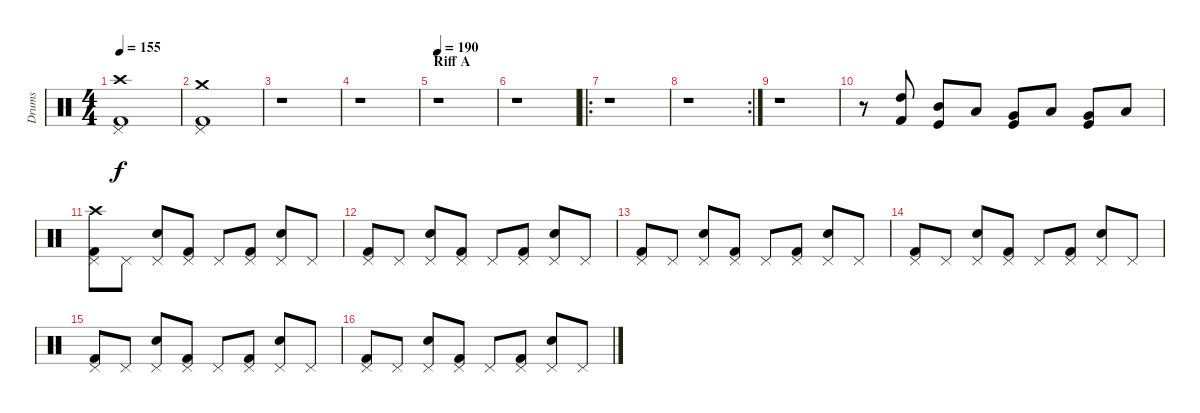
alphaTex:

\track ("Drums" "Drums") {instrument percussion}
\staff {score}
\articulation defaults
\ts (4 4)
\tempo 155
\clef neutral
\ks c
("Kick (hit) 2" "Pedal Hi-Hat (hit)" "Crash high (hit)").1{dy f} |
("Kick (hit) 2" "Pedal Hi-Hat (hit)" "Crash medium (hit)").1 |
r.1 |
r.1 |
\section ("" "Riff A")
\tempo 190
r.1 |
r.1 |
\ro
r.1 |
\rc 2
r.1 |
r.1 |
r.8 ("High Tom (hit)" "Kick (hit) 2").8 ("Mid Tom (hit)" "Kick (hit)").8 "Low Tom (hit)".8 ("Very Low Tom (hit)" "Kick (hit)").8 "Low Floor Tom (hit)".8 ("Very Low Tom (hit)" "Kick (hit)").8 "Low Floor Tom (hit)".8 |
("Kick (hit) 2" "Pedal Hi-Hat (hit)" "Crash high (hit)").8 "Pedal Hi-Hat (hit)".8 ("Snare (hit) 2" "Pedal Hi-Hat (hit)").8 ("Kick (hit) 2" "Pedal Hi-Hat (hit)").8 "Pedal Hi-Hat (hit)".8 ("Kick (hit) 2" "Pedal Hi-Hat (hit)").8 ("Snare (hit) 2" "Pedal Hi-Hat (hit)").8 "Pedal Hi-Hat (hit)".8 |
("Kick (hit) 2" "Pedal Hi-Hat (hit)").8 "Pedal Hi-Hat (hit)".8 ("Snare (hit) 2" "Pedal Hi-Hat (hit)").8 ("Kick (hit) 2" "Pedal Hi-Hat (hit)").8 "Pedal Hi-Hat (hit)".8 ("Kick (hit) 2" "Pedal Hi-Hat (hit)").8 ("Snare (hit) 2" "Pedal Hi-Hat (hit)").8 "Pedal Hi-Hat (hit)".8 |
("Kick (hit) 2" "Pedal Hi-Hat (hit)").8 "Pedal Hi-Hat (hit)".8 ("Snare (hit) 2" "Pedal Hi-Hat (hit)").8 ("Kick (hit) 2" "Pedal Hi-Hat (hit)").8 "Pedal Hi-Hat (hit)".8 ("Kick (hit) 2" "Pedal Hi-Hat (hit)").8 ("Snare (hit) 2" "Pedal Hi-Hat (hit)").8 "Pedal Hi-Hat (hit)".8 |
("Kick (hit) 2" "Pedal Hi-Hat (hit)").8 "Pedal Hi-Hat (hit)".8 ("Snare (hit) 2" "Pedal Hi-Hat (hit)").8 ("Kick (hit) 2" "Pedal Hi-Hat (hit)").8 "Pedal Hi-Hat (hit)".8 ("Kick (hit) 2" "Pedal Hi-Hat (hit)").8 ("Snare (hit) 2" "Pedal Hi-Hat (hit)").8 "Pedal Hi-Hat (hit)".8 |
("Kick (hit) 2" "Pedal Hi-Hat (hit)").8 "Pedal Hi-Hat (hit)".8 ("Snare (hit) 2" "Pedal Hi-Hat (hit)").8 ("Kick (hit) 2" "Pedal Hi-Hat (hit)").8 "Pedal Hi-Hat (hit)".8 ("Kick (hit) 2" "Pedal Hi-Hat (hit)").8 ("Snare (hit) 2" "Pedal Hi-Hat (hit)").8 "Pedal Hi-Hat (hit)".8 |
("Kick (hit) 2" "Pedal Hi-Hat (hit)").8 "Pedal Hi-Hat (hit)".8 ("Snare (hit) 2" "Pedal Hi-Hat (hit)").8 ("Kick (hit) 2" "Pedal Hi-Hat (hit)").8 "Pedal Hi-Hat (hit)".8 ("Kick (hit) 2" "Pedal Hi-Hat (hit)").8 ("Snare (hit) 2" "Pedal Hi-Hat (hit)").8 "Pedal Hi-Hat (hit)".8
